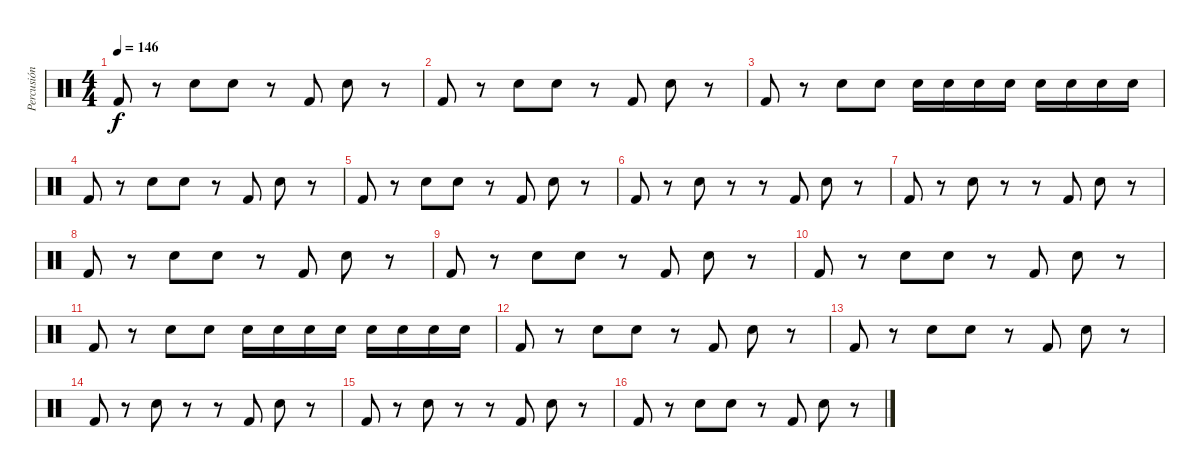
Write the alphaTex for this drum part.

\track ("Percusión" "Percusión") {instrument percussion}
\staff {score}
\articulation defaults
\ts (4 4)
\tempo 146
\clef neutral
\ks c "Kick (hit) 2".8{dy f}
r.8 "Snare (hit) 2".8 "Snare (hit) 2".8 r.8 "Kick (hit) 2".8 "Snare (hit) 2".8 r.8 |
"Kick (hit) 2".8 r.8 "Snare (hit) 2".8 "Snare (hit) 2".8 r.8 "Kick (hit) 2".8 "Snare (hit) 2".8 r.8 |
"Kick (hit) 2".8 r.8 "Snare (hit) 2".8 "Snare (hit) 2".8 "Snare (hit) 2".16 "Snare (hit) 2".16 "Snare (hit) 2".16 "Snare (hit) 2".16 "Snare (hit) 2".16 "Snare (hit) 2".16 "Snare (hit) 2".16 "Snare (hit) 2".16 |
"Kick (hit) 2".8 r.8 "Snare (hit) 2".8 "Snare (hit) 2".8 r.8 "Kick (hit) 2".8 "Snare (hit) 2".8 r.8 |
"Kick (hit) 2".8 r.8 "Snare (hit) 2".8 "Snare (hit) 2".8 r.8 "Kick (hit) 2".8 "Snare (hit) 2".8 r.8 |
"Kick (hit) 2".8 r.8 "Snare (hit) 2".8 r.8 r.8 "Kick (hit) 2".8 "Snare (hit) 2".8 r.8 |
"Kick (hit) 2".8 r.8 "Snare (hit) 2".8 r.8 r.8 "Kick (hit) 2".8 "Snare (hit) 2".8 r.8 |
"Kick (hit) 2".8 r.8 "Snare (hit) 2".8 "Snare (hit) 2".8 r.8 "Kick (hit) 2".8 "Snare (hit) 2".8 r.8 |
"Kick (hit) 2".8 r.8 "Snare (hit) 2".8 "Snare (hit) 2".8 r.8 "Kick (hit) 2".8 "Snare (hit) 2".8 r.8 |
"Kick (hit) 2".8 r.8 "Snare (hit) 2".8 "Snare (hit) 2".8 r.8 "Kick (hit) 2".8 "Snare (hit) 2".8 r.8 |
"Kick (hit) 2".8 r.8 "Snare (hit) 2".8 "Snare (hit) 2".8 "Snare (hit) 2".16 "Snare (hit) 2".16 "Snare (hit) 2".16 "Snare (hit) 2".16 "Snare (hit) 2".16 "Snare (hit) 2".16 "Snare (hit) 2".16 "Snare (hit) 2".16 |
"Kick (hit) 2".8 r.8 "Snare (hit) 2".8 "Snare (hit) 2".8 r.8 "Kick (hit) 2".8 "Snare (hit) 2".8 r.8 |
"Kick (hit) 2".8 r.8 "Snare (hit) 2".8 "Snare (hit) 2".8 r.8 "Kick (hit) 2".8 "Snare (hit) 2".8 r.8 |
"Kick (hit) 2".8 r.8 "Snare (hit) 2".8 r.8 r.8 "Kick (hit) 2".8 "Snare (hit) 2".8 r.8 |
"Kick (hit) 2".8 r.8 "Snare (hit) 2".8 r.8 r.8 "Kick (hit) 2".8 "Snare (hit) 2".8 r.8 |
"Kick (hit) 2".8 r.8 "Snare (hit) 2".8 "Snare (hit) 2".8 r.8 "Kick (hit) 2".8 "Snare (hit) 2".8 r.8
